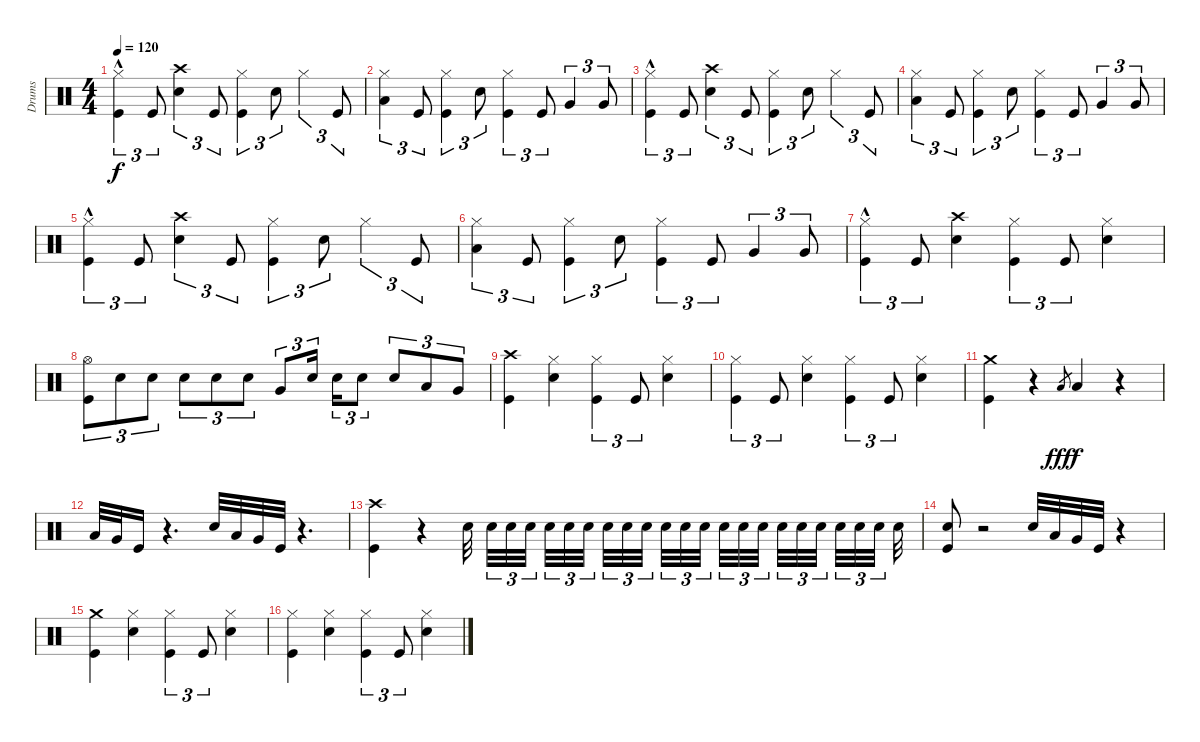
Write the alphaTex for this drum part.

\track ("Drums" "Drums") {instrument percussion}
\staff {score}
\articulation defaults
\ts (4 4)
\tempo 120
\clef neutral
\ks c
("Kick (hit)"{hac} "Hi-Hat (closed)").4{tu (3 2) dy f} "Kick (hit)".8{tu (3 2)} ("Snare (hit) 2" "Crash high (hit)").4{tu (3 2)} "Kick (hit)".8{tu (3 2)} ("Kick (hit)" "Hi-Hat (closed)").4{tu (3 2)} "Snare (hit) 2".8{tu (3 2)} "Hi-Hat (closed)".4{tu (3 2)} "Kick (hit)".8{tu (3 2)} |
("Low Tom (hit)" "Hi-Hat (closed)").4{tu (3 2)} "Kick (hit)".8{tu (3 2)} ("Kick (hit)" "Hi-Hat (closed)").4{tu (3 2)} "Snare (hit) 2".8{tu (3 2)} ("Kick (hit)" "Hi-Hat (closed)").4{tu (3 2)} "Kick (hit)".8{tu (3 2)} "Very Low Tom (hit)".4{tu (3 2)} "Very Low Tom (hit)".8{tu (3 2)} |
("Kick (hit)"{hac} "Hi-Hat (closed)").4{tu (3 2)} "Kick (hit)".8{tu (3 2)} ("Snare (hit) 2" "Crash high (hit)").4{tu (3 2)} "Kick (hit)".8{tu (3 2)} ("Kick (hit)" "Hi-Hat (closed)").4{tu (3 2)} "Snare (hit) 2".8{tu (3 2)} "Hi-Hat (closed)".4{tu (3 2)} "Kick (hit)".8{tu (3 2)} |
("Low Tom (hit)" "Hi-Hat (closed)").4{tu (3 2)} "Kick (hit)".8{tu (3 2)} ("Kick (hit)" "Hi-Hat (closed)").4{tu (3 2)} "Snare (hit) 2".8{tu (3 2)} ("Kick (hit)" "Hi-Hat (closed)").4{tu (3 2)} "Kick (hit)".8{tu (3 2)} "Very Low Tom (hit)".4{tu (3 2)} "Very Low Tom (hit)".8{tu (3 2)} |
("Kick (hit)"{hac} "Hi-Hat (closed)").4{tu (3 2)} "Kick (hit)".8{tu (3 2)} ("Snare (hit) 2" "Crash high (hit)").4{tu (3 2)} "Kick (hit)".8{tu (3 2)} ("Kick (hit)" "Hi-Hat (closed)").4{tu (3 2)} "Snare (hit) 2".8{tu (3 2)} "Hi-Hat (closed)".4{tu (3 2)} "Kick (hit)".8{tu (3 2)} |
("Low Tom (hit)" "Hi-Hat (closed)").4{tu (3 2)} "Kick (hit)".8{tu (3 2)} ("Kick (hit)" "Hi-Hat (closed)").4{tu (3 2)} "Snare (hit) 2".8{tu (3 2)} ("Kick (hit)" "Hi-Hat (closed)").4{tu (3 2)} "Kick (hit)".8{tu (3 2)} "Very Low Tom (hit)".4{tu (3 2)} "Very Low Tom (hit)".8{tu (3 2)} |
("Kick (hit)"{hac} "Hi-Hat (closed)").4{tu (3 2)} "Kick (hit)".8{tu (3 2)} ("Snare (hit) 2" "Crash high (hit)").4 ("Kick (hit)" "Hi-Hat (closed)").4{tu (3 2)} "Kick (hit)".8{tu (3 2)} ("Snare (hit) 2" "Hi-Hat (closed)").4 |
("Kick (hit)" "Hi-Hat (open)").8{tu (3 2)} "Snare (hit) 2".8{tu (3 2)} "Snare (hit) 2".8{tu (3 2)} "Snare (hit) 2".8{tu (3 2)} "Snare (hit) 2".8{tu (3 2)} "Snare (hit) 2".8{tu (3 2)} "Very Low Tom (hit)".8{tu (3 2)} "Snare (hit) 2".16{tu (3 2)} "Snare (hit) 2".16{tu (3 2)} "Snare (hit) 2".8{tu (3 2)} "Snare (hit) 2".8{tu (3 2)} "Low Tom (hit)".8{tu (3 2)} "Very Low Tom (hit)".8{tu (3 2)} |
("Kick (hit)" "Crash high (hit)").4 ("Snare (hit) 2" "Hi-Hat (closed)").4 ("Kick (hit)" "Hi-Hat (closed)").4{tu (3 2)} "Kick (hit)".8{tu (3 2)} ("Snare (hit) 2" "Hi-Hat (closed)").4 |
("Kick (hit)" "Hi-Hat (closed)").4{tu (3 2)} "Kick (hit)".8{tu (3 2)} ("Snare (hit) 2" "Hi-Hat (closed)").4 ("Kick (hit)" "Hi-Hat (closed)").4{tu (3 2)} "Kick (hit)".8{tu (3 2)} ("Snare (hit) 2" "Hi-Hat (closed)").4 |
("Kick (hit)" "Crash medium (hit)").4 r.4 "Low Tom (hit)".8{gr dy fff} "Low Tom (hit)".4{dy f} r.4 |
"Low Tom (hit)".32 "Very Low Tom (hit)".32 "Kick (hit)".16 r.4{d} "Snare (hit) 2".32 "Low Tom (hit)".32 "Very Low Tom (hit)".32 "Kick (hit)".32 r.4{d} |
("Kick (hit)" "Crash high (hit)").4 r.4 "Snare (hit) 2".32 "Snare (hit) 2".32{tu (3 2)} "Snare (hit) 2".32{tu (3 2)} "Snare (hit) 2".32{tu (3 2)} "Snare (hit) 2".32{tu (3 2)} "Snare (hit) 2".32{tu (3 2)} "Snare (hit) 2".32{tu (3 2)} "Snare (hit) 2".32{tu (3 2)} "Snare (hit) 2".32{tu (3 2)} "Snare (hit) 2".32{tu (3 2)} "Snare (hit) 2".32{tu (3 2)} "Snare (hit) 2".32{tu (3 2)} "Snare (hit) 2".32{tu (3 2)} "Snare (hit) 2".32{tu (3 2)} "Snare (hit) 2".32{tu (3 2)} "Snare (hit) 2".32{tu (3 2)} "Snare (hit) 2".32{tu (3 2)} "Snare (hit) 2".32{tu (3 2)} "Snare (hit) 2".32{tu (3 2)} "Snare (hit) 2".32{tu (3 2)} "Snare (hit) 2".32{tu (3 2)} "Snare (hit) 2".32{tu (3 2)} "Snare (hit) 2".32 |
("Kick (hit)" "Snare (hit) 2").8 r.2 "Snare (hit) 2".32 "Low Tom (hit)".32 "Very Low Tom (hit)".32 "Kick (hit)".32 r.4 |
("Kick (hit)" "Crash medium (hit)").4 ("Snare (hit) 2" "Hi-Hat (closed)").4 ("Kick (hit)" "Hi-Hat (closed)").4{tu (3 2)} "Kick (hit)".8{tu (3 2)} ("Snare (hit) 2" "Hi-Hat (closed)").4 |
("Kick (hit)" "Hi-Hat (closed)").4 ("Snare (hit) 2" "Hi-Hat (closed)").4 ("Kick (hit)" "Hi-Hat (closed)").4{tu (3 2)} "Kick (hit)".8{tu (3 2)} ("Snare (hit) 2" "Hi-Hat (closed)").4
